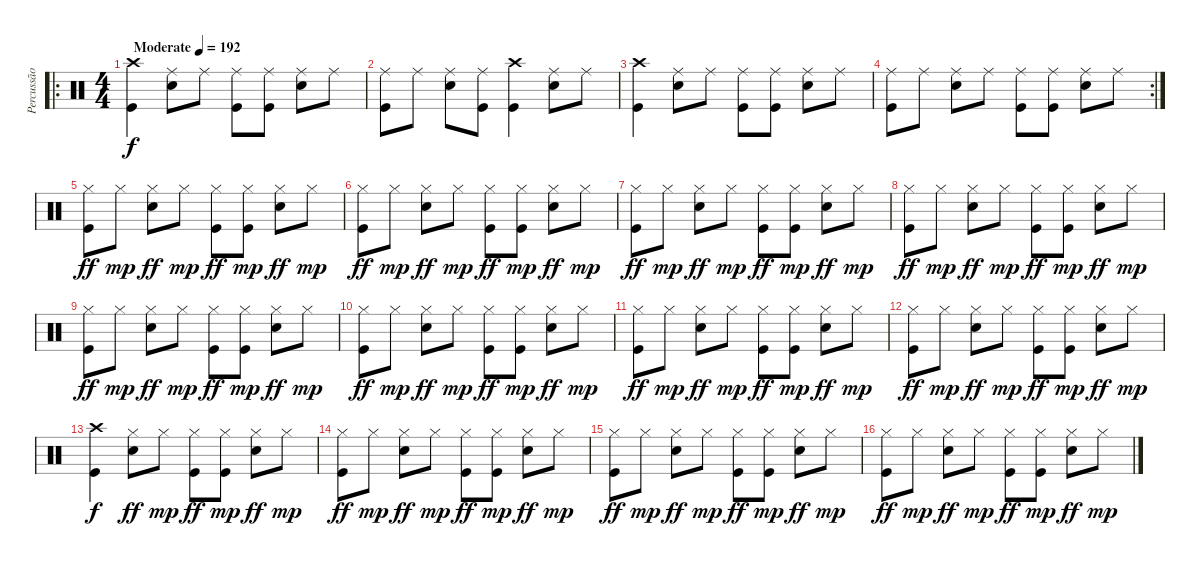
\track ("Percussão" "Percussão") {instrument percussion}
\staff {score}
\articulation defaults
\ro
\ts (4 4)
\tempo (192 "Moderate")
\clef neutral
\ks c
("Crash high (hit)" "Kick (hit)").4{dy f} ("Ride (middle)" "Snare (hit) 2").8 "Ride (middle)".8 ("Ride (middle)" "Kick (hit)").8 ("Ride (middle)" "Kick (hit)").8 ("Ride (middle)" "Snare (hit) 2").8 "Ride (middle)".8 |
("Ride (middle)" "Kick (hit)").8 "Ride (middle)".8 ("Ride (middle)" "Snare (hit) 2").8 ("Ride (middle)" "Kick (hit)").8 ("Crash high (hit)" "Kick (hit)").4 ("Ride (middle)" "Snare (hit) 2").8 "Ride (middle)".8 |
("Crash high (hit)" "Kick (hit)").4 ("Ride (middle)" "Snare (hit) 2").8 "Ride (middle)".8 ("Ride (middle)" "Kick (hit)").8 ("Ride (middle)" "Kick (hit)").8 ("Ride (middle)" "Snare (hit) 2").8 "Ride (middle)".8 |
\rc 2
("Ride (middle)" "Kick (hit)").8 "Ride (middle)".8 ("Ride (middle)" "Snare (hit) 2").8 "Ride (middle)".8 ("Ride (middle)" "Kick (hit)").8 ("Ride (middle)" "Kick (hit)").8 ("Ride (middle)" "Snare (hit) 2").8 "Ride (middle)".8 |
("Hi-Hat (closed)" "Kick (hit)").8{dy ff} "Hi-Hat (closed)".8{dy mp} ("Hi-Hat (closed)" "Snare (hit) 2").8{dy ff} "Hi-Hat (closed)".8{dy mp} ("Hi-Hat (closed)" "Kick (hit)").8{dy ff} ("Hi-Hat (closed)" "Kick (hit)").8{dy mp} ("Hi-Hat (closed)" "Snare (hit) 2").8{dy ff} "Hi-Hat (closed)".8{dy mp} |
("Hi-Hat (closed)" "Kick (hit)").8{dy ff} "Hi-Hat (closed)".8{dy mp} ("Hi-Hat (closed)" "Snare (hit) 2").8{dy ff} "Hi-Hat (closed)".8{dy mp} ("Hi-Hat (closed)" "Kick (hit)").8{dy ff} ("Hi-Hat (closed)" "Kick (hit)").8{dy mp} ("Hi-Hat (closed)" "Snare (hit) 2").8{dy ff} "Hi-Hat (closed)".8{dy mp} |
("Hi-Hat (closed)" "Kick (hit)").8{dy ff} "Hi-Hat (closed)".8{dy mp} ("Hi-Hat (closed)" "Snare (hit) 2").8{dy ff} "Hi-Hat (closed)".8{dy mp} ("Hi-Hat (closed)" "Kick (hit)").8{dy ff} ("Hi-Hat (closed)" "Kick (hit)").8{dy mp} ("Hi-Hat (closed)" "Snare (hit) 2").8{dy ff} "Hi-Hat (closed)".8{dy mp} |
("Hi-Hat (closed)" "Kick (hit)").8{dy ff} "Hi-Hat (closed)".8{dy mp} ("Hi-Hat (closed)" "Snare (hit) 2").8{dy ff} "Hi-Hat (closed)".8{dy mp} ("Hi-Hat (closed)" "Kick (hit)").8{dy ff} ("Hi-Hat (closed)" "Kick (hit)").8{dy mp} ("Hi-Hat (closed)" "Snare (hit) 2").8{dy ff} "Hi-Hat (closed)".8{dy mp} |
("Hi-Hat (closed)" "Kick (hit)").8{dy ff} "Hi-Hat (closed)".8{dy mp} ("Hi-Hat (closed)" "Snare (hit) 2").8{dy ff} "Hi-Hat (closed)".8{dy mp} ("Hi-Hat (closed)" "Kick (hit)").8{dy ff} ("Hi-Hat (closed)" "Kick (hit)").8{dy mp} ("Hi-Hat (closed)" "Snare (hit) 2").8{dy ff} "Hi-Hat (closed)".8{dy mp} |
("Hi-Hat (closed)" "Kick (hit)").8{dy ff} "Hi-Hat (closed)".8{dy mp} ("Hi-Hat (closed)" "Snare (hit) 2").8{dy ff} "Hi-Hat (closed)".8{dy mp} ("Hi-Hat (closed)" "Kick (hit)").8{dy ff} ("Hi-Hat (closed)" "Kick (hit)").8{dy mp} ("Hi-Hat (closed)" "Snare (hit) 2").8{dy ff} "Hi-Hat (closed)".8{dy mp} |
("Hi-Hat (closed)" "Kick (hit)").8{dy ff} "Hi-Hat (closed)".8{dy mp} ("Hi-Hat (closed)" "Snare (hit) 2").8{dy ff} "Hi-Hat (closed)".8{dy mp} ("Hi-Hat (closed)" "Kick (hit)").8{dy ff} ("Hi-Hat (closed)" "Kick (hit)").8{dy mp} ("Hi-Hat (closed)" "Snare (hit) 2").8{dy ff} "Hi-Hat (closed)".8{dy mp} |
("Hi-Hat (closed)" "Kick (hit)").8{dy ff} "Hi-Hat (closed)".8{dy mp} ("Hi-Hat (closed)" "Snare (hit) 2").8{dy ff} "Hi-Hat (closed)".8{dy mp} ("Hi-Hat (closed)" "Kick (hit)").8{dy ff} ("Hi-Hat (closed)" "Kick (hit)").8{dy mp} ("Hi-Hat (closed)" "Snare (hit) 2").8{dy ff} "Hi-Hat (closed)".8{dy mp} |
("Crash high (hit)" "Kick (hit)").4{dy f} ("Hi-Hat (closed)" "Snare (hit) 2").8{dy ff} "Hi-Hat (closed)".8{dy mp} ("Hi-Hat (closed)" "Kick (hit)").8{dy ff} ("Hi-Hat (closed)" "Kick (hit)").8{dy mp} ("Hi-Hat (closed)" "Snare (hit) 2").8{dy ff} "Hi-Hat (closed)".8{dy mp} |
("Hi-Hat (closed)" "Kick (hit)").8{dy ff} "Hi-Hat (closed)".8{dy mp} ("Hi-Hat (closed)" "Snare (hit) 2").8{dy ff} "Hi-Hat (closed)".8{dy mp} ("Hi-Hat (closed)" "Kick (hit)").8{dy ff} ("Hi-Hat (closed)" "Kick (hit)").8{dy mp} ("Hi-Hat (closed)" "Snare (hit) 2").8{dy ff} "Hi-Hat (closed)".8{dy mp} |
("Hi-Hat (closed)" "Kick (hit)").8{dy ff} "Hi-Hat (closed)".8{dy mp} ("Hi-Hat (closed)" "Snare (hit) 2").8{dy ff} "Hi-Hat (closed)".8{dy mp} ("Hi-Hat (closed)" "Kick (hit)").8{dy ff} ("Hi-Hat (closed)" "Kick (hit)").8{dy mp} ("Hi-Hat (closed)" "Snare (hit) 2").8{dy ff} "Hi-Hat (closed)".8{dy mp} |
("Hi-Hat (closed)" "Kick (hit)").8{dy ff} "Hi-Hat (closed)".8{dy mp} ("Hi-Hat (closed)" "Snare (hit) 2").8{dy ff} "Hi-Hat (closed)".8{dy mp} ("Hi-Hat (closed)" "Kick (hit)").8{dy ff} ("Hi-Hat (closed)" "Kick (hit)").8{dy mp} ("Hi-Hat (closed)" "Snare (hit) 2").8{dy ff} "Hi-Hat (closed)".8{dy mp}
